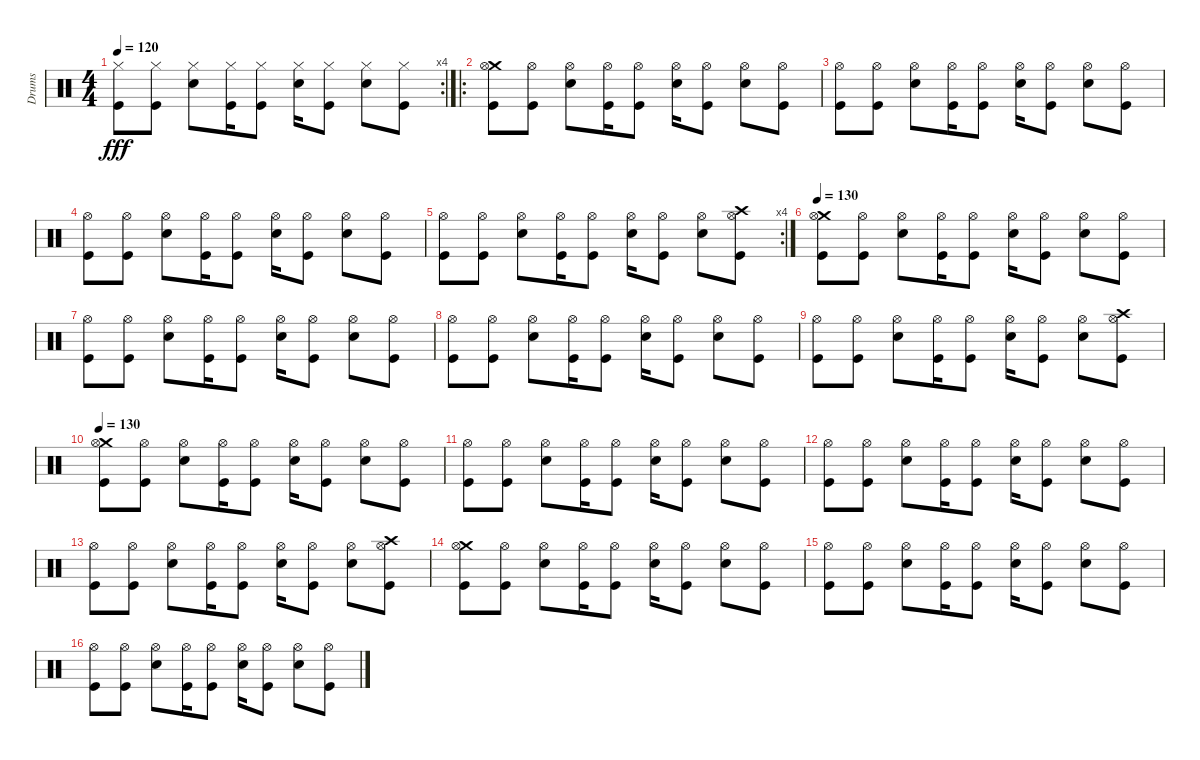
\track ("Drums" "Drums") {instrument percussion}
\staff {score}
\articulation defaults
\rc 4
\ts (4 4)
\tempo 120
\clef neutral
\ks c
("Kick (hit)" "Hi-Hat (closed)").8{dy fff} ("Kick (hit)" "Hi-Hat (closed)").8 ("Snare (hit) 2" "Hi-Hat (closed)").8 ("Kick (hit)" "Hi-Hat (closed)").16 ("Kick (hit)" "Hi-Hat (closed)").8 ("Snare (hit) 2" "Hi-Hat (closed)").16 ("Kick (hit)" "Hi-Hat (closed)").8 ("Snare (hit) 2" "Hi-Hat (closed)").8 ("Kick (hit)" "Hi-Hat (closed)").8 |
\ro
("Crash medium (hit)" "Kick (hit)" "Hi-Hat (open)").8 ("Kick (hit)" "Hi-Hat (open)").8 ("Snare (hit) 2" "Hi-Hat (open)").8 ("Kick (hit)" "Hi-Hat (open)").16 ("Kick (hit)" "Hi-Hat (open)").8 ("Snare (hit) 2" "Hi-Hat (open)").16 ("Kick (hit)" "Hi-Hat (open)").8 ("Snare (hit) 2" "Hi-Hat (open)").8 ("Kick (hit)" "Hi-Hat (open)").8 |
("Kick (hit)" "Hi-Hat (open)").8 ("Kick (hit)" "Hi-Hat (open)").8 ("Snare (hit) 2" "Hi-Hat (open)").8 ("Kick (hit)" "Hi-Hat (open)").16 ("Kick (hit)" "Hi-Hat (open)").8 ("Snare (hit) 2" "Hi-Hat (open)").16 ("Kick (hit)" "Hi-Hat (open)").8 ("Snare (hit) 2" "Hi-Hat (open)").8 ("Kick (hit)" "Hi-Hat (open)").8 |
("Kick (hit)" "Hi-Hat (open)").8 ("Kick (hit)" "Hi-Hat (open)").8 ("Snare (hit) 2" "Hi-Hat (open)").8 ("Kick (hit)" "Hi-Hat (open)").16 ("Kick (hit)" "Hi-Hat (open)").8 ("Snare (hit) 2" "Hi-Hat (open)").16 ("Kick (hit)" "Hi-Hat (open)").8 ("Snare (hit) 2" "Hi-Hat (open)").8 ("Kick (hit)" "Hi-Hat (open)").8 |
\rc 4
("Kick (hit)" "Hi-Hat (open)").8 ("Kick (hit)" "Hi-Hat (open)").8 ("Snare (hit) 2" "Hi-Hat (open)").8 ("Kick (hit)" "Hi-Hat (open)").16 ("Kick (hit)" "Hi-Hat (open)").8 ("Snare (hit) 2" "Hi-Hat (open)").16 ("Kick (hit)" "Hi-Hat (open)").8 ("Snare (hit) 2" "Hi-Hat (open)").8 ("Crash high (hit)" "Kick (hit)" "Hi-Hat (open)").8 |
\tempo 130
("Crash medium (hit)" "Kick (hit)" "Hi-Hat (open)").8 ("Kick (hit)" "Hi-Hat (open)").8 ("Snare (hit) 2" "Hi-Hat (open)").8 ("Kick (hit)" "Hi-Hat (open)").16 ("Kick (hit)" "Hi-Hat (open)").8 ("Snare (hit) 2" "Hi-Hat (open)").16 ("Kick (hit)" "Hi-Hat (open)").8 ("Snare (hit) 2" "Hi-Hat (open)").8 ("Kick (hit)" "Hi-Hat (open)").8 |
("Kick (hit)" "Hi-Hat (open)").8 ("Kick (hit)" "Hi-Hat (open)").8 ("Snare (hit) 2" "Hi-Hat (open)").8 ("Kick (hit)" "Hi-Hat (open)").16 ("Kick (hit)" "Hi-Hat (open)").8 ("Snare (hit) 2" "Hi-Hat (open)").16 ("Kick (hit)" "Hi-Hat (open)").8 ("Snare (hit) 2" "Hi-Hat (open)").8 ("Kick (hit)" "Hi-Hat (open)").8 |
("Kick (hit)" "Hi-Hat (open)").8 ("Kick (hit)" "Hi-Hat (open)").8 ("Snare (hit) 2" "Hi-Hat (open)").8 ("Kick (hit)" "Hi-Hat (open)").16 ("Kick (hit)" "Hi-Hat (open)").8 ("Snare (hit) 2" "Hi-Hat (open)").16 ("Kick (hit)" "Hi-Hat (open)").8 ("Snare (hit) 2" "Hi-Hat (open)").8 ("Kick (hit)" "Hi-Hat (open)").8 |
("Kick (hit)" "Hi-Hat (open)").8 ("Kick (hit)" "Hi-Hat (open)").8 ("Snare (hit) 2" "Hi-Hat (open)").8 ("Kick (hit)" "Hi-Hat (open)").16 ("Kick (hit)" "Hi-Hat (open)").8 ("Snare (hit) 2" "Hi-Hat (open)").16 ("Kick (hit)" "Hi-Hat (open)").8 ("Snare (hit) 2" "Hi-Hat (open)").8 ("Crash high (hit)" "Kick (hit)" "Hi-Hat (open)").8 |
\tempo 130
("Crash medium (hit)" "Kick (hit)" "Hi-Hat (open)").8 ("Kick (hit)" "Hi-Hat (open)").8 ("Snare (hit) 2" "Hi-Hat (open)").8 ("Kick (hit)" "Hi-Hat (open)").16 ("Kick (hit)" "Hi-Hat (open)").8 ("Snare (hit) 2" "Hi-Hat (open)").16 ("Kick (hit)" "Hi-Hat (open)").8 ("Snare (hit) 2" "Hi-Hat (open)").8 ("Kick (hit)" "Hi-Hat (open)").8 |
("Kick (hit)" "Hi-Hat (open)").8 ("Kick (hit)" "Hi-Hat (open)").8 ("Snare (hit) 2" "Hi-Hat (open)").8 ("Kick (hit)" "Hi-Hat (open)").16 ("Kick (hit)" "Hi-Hat (open)").8 ("Snare (hit) 2" "Hi-Hat (open)").16 ("Kick (hit)" "Hi-Hat (open)").8 ("Snare (hit) 2" "Hi-Hat (open)").8 ("Kick (hit)" "Hi-Hat (open)").8 |
("Kick (hit)" "Hi-Hat (open)").8 ("Kick (hit)" "Hi-Hat (open)").8 ("Snare (hit) 2" "Hi-Hat (open)").8 ("Kick (hit)" "Hi-Hat (open)").16 ("Kick (hit)" "Hi-Hat (open)").8 ("Snare (hit) 2" "Hi-Hat (open)").16 ("Kick (hit)" "Hi-Hat (open)").8 ("Snare (hit) 2" "Hi-Hat (open)").8 ("Kick (hit)" "Hi-Hat (open)").8 |
("Kick (hit)" "Hi-Hat (open)").8 ("Kick (hit)" "Hi-Hat (open)").8 ("Snare (hit) 2" "Hi-Hat (open)").8 ("Kick (hit)" "Hi-Hat (open)").16 ("Kick (hit)" "Hi-Hat (open)").8 ("Snare (hit) 2" "Hi-Hat (open)").16 ("Kick (hit)" "Hi-Hat (open)").8 ("Snare (hit) 2" "Hi-Hat (open)").8 ("Crash high (hit)" "Kick (hit)" "Hi-Hat (open)").8 |
("Crash medium (hit)" "Kick (hit)" "Hi-Hat (open)").8 ("Kick (hit)" "Hi-Hat (open)").8 ("Snare (hit) 2" "Hi-Hat (open)").8 ("Kick (hit)" "Hi-Hat (open)").16 ("Kick (hit)" "Hi-Hat (open)").8 ("Snare (hit) 2" "Hi-Hat (open)").16 ("Kick (hit)" "Hi-Hat (open)").8 ("Snare (hit) 2" "Hi-Hat (open)").8 ("Kick (hit)" "Hi-Hat (open)").8 |
("Kick (hit)" "Hi-Hat (open)").8 ("Kick (hit)" "Hi-Hat (open)").8 ("Snare (hit) 2" "Hi-Hat (open)").8 ("Kick (hit)" "Hi-Hat (open)").16 ("Kick (hit)" "Hi-Hat (open)").8 ("Snare (hit) 2" "Hi-Hat (open)").16 ("Kick (hit)" "Hi-Hat (open)").8 ("Snare (hit) 2" "Hi-Hat (open)").8 ("Kick (hit)" "Hi-Hat (open)").8 |
("Kick (hit)" "Hi-Hat (open)").8 ("Kick (hit)" "Hi-Hat (open)").8 ("Snare (hit) 2" "Hi-Hat (open)").8 ("Kick (hit)" "Hi-Hat (open)").16 ("Kick (hit)" "Hi-Hat (open)").8 ("Snare (hit) 2" "Hi-Hat (open)").16 ("Kick (hit)" "Hi-Hat (open)").8 ("Snare (hit) 2" "Hi-Hat (open)").8 ("Kick (hit)" "Hi-Hat (open)").8
